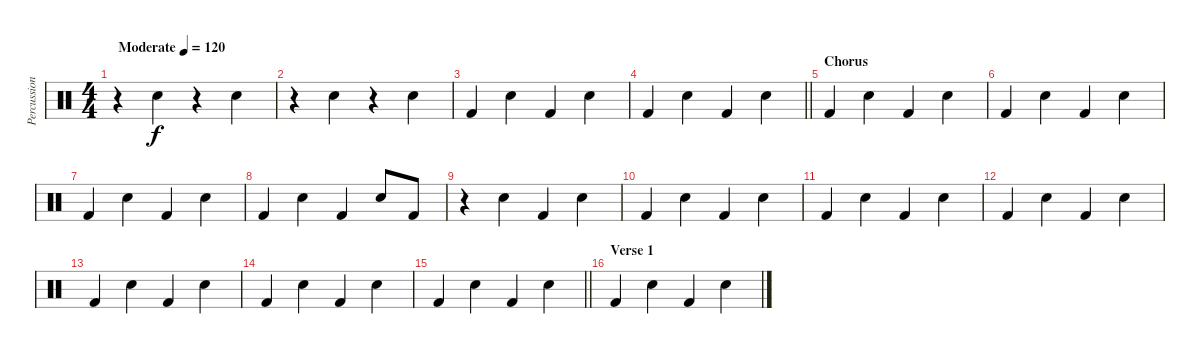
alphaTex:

\track ("Percussion" "Percussion") {instrument percussion}
\staff {score}
\articulation defaults
\ts (4 4)
\tempo (120 "Moderate")
\clef neutral
\ks c
r.4{dy f} "Snare (hit) 2".4 r.4 "Snare (hit) 2".4 |
r.4 "Snare (hit) 2".4 r.4 "Snare (hit) 2".4 |
"Kick (hit) 2".4 "Snare (hit) 2".4 "Kick (hit) 2".4 "Snare (hit) 2".4 |
\barLineRight lightlight "Kick (hit) 2".4 "Snare (hit) 2".4 "Kick (hit) 2".4 "Snare (hit) 2".4
|
\section ("" "Chorus")
"Kick (hit) 2".4 "Snare (hit) 2".4 "Kick (hit) 2".4 "Snare (hit) 2".4 |
"Kick (hit) 2".4 "Snare (hit) 2".4 "Kick (hit) 2".4 "Snare (hit) 2".4 |
"Kick (hit) 2".4 "Snare (hit) 2".4 "Kick (hit) 2".4 "Snare (hit) 2".4 |
"Kick (hit) 2".4 "Snare (hit) 2".4 "Kick (hit) 2".4 "Snare (hit) 2".8 "Kick (hit) 2".8 |
r.4 "Snare (hit) 2".4 "Kick (hit) 2".4 "Snare (hit) 2".4 |
"Kick (hit) 2".4 "Snare (hit) 2".4 "Kick (hit) 2".4 "Snare (hit) 2".4 |
"Kick (hit) 2".4 "Snare (hit) 2".4 "Kick (hit) 2".4 "Snare (hit) 2".4 |
"Kick (hit) 2".4 "Snare (hit) 2".4 "Kick (hit) 2".4 "Snare (hit) 2".4 |
"Kick (hit) 2".4 "Snare (hit) 2".4 "Kick (hit) 2".4 "Snare (hit) 2".4 |
"Kick (hit) 2".4 "Snare (hit) 2".4 "Kick (hit) 2".4 "Snare (hit) 2".4 |
\barLineRight lightlight "Kick (hit) 2".4 "Snare (hit) 2".4 "Kick (hit) 2".4 "Snare (hit) 2".4
|
\section ("" "Verse 1")
"Kick (hit) 2".4 "Snare (hit) 2".4 "Kick (hit) 2".4 "Snare (hit) 2".4
